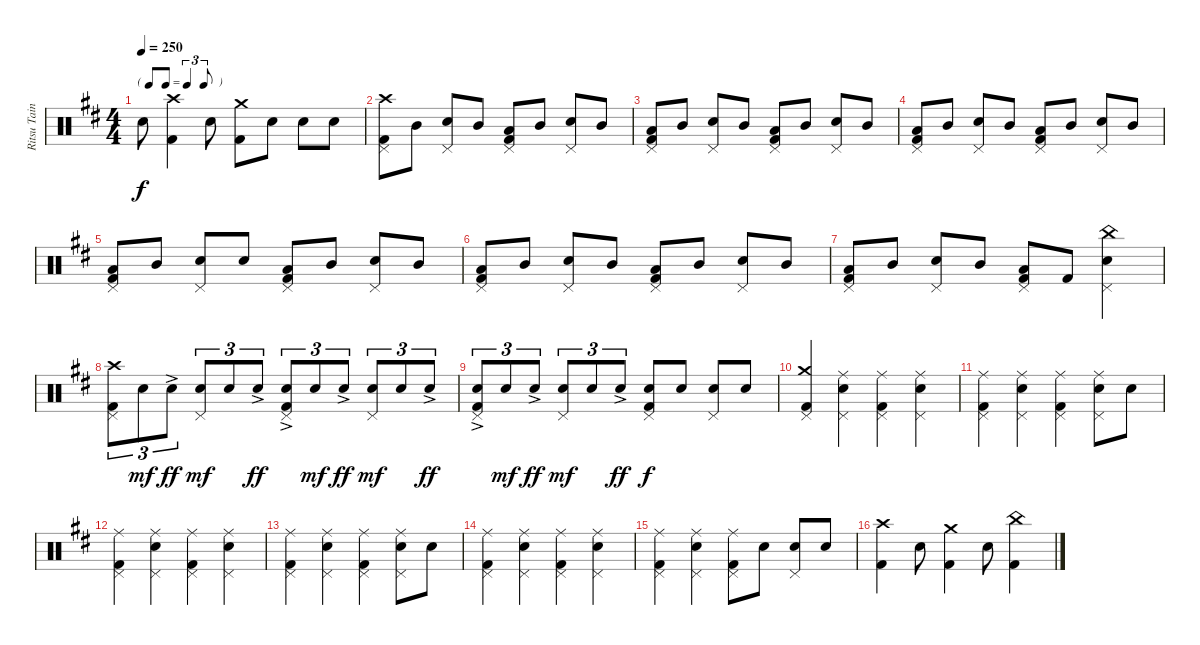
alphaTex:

\track ("Ritsu Tainaka" "Ritsu Tain") {instrument percussion}
\staff {score}
\articulation defaults
\ts (4 4)
\tf triplet8th
\tempo 250
\clef neutral
\ks d "Electric Snare (hit)".8{dy f}
("Crash high (hit)" "Kick (hit) 2").4 "Electric Snare (hit)".8 ("Crash medium (hit)" "Kick (hit) 2").8 "Electric Snare (hit)".8 "Electric Snare (hit)".8 "Electric Snare (hit)".8 |
("Crash high (hit)" "Pedal Hi-Hat (hit)" "Kick (hit) 2").8 "Mid Tom (hit)".8 ("Pedal Hi-Hat (hit)" "Electric Snare (hit)").8 "Mid Tom (hit)".8 ("Pedal Hi-Hat (hit)" "Low Floor Tom (hit)" "Kick (hit) 2").8 "Mid Tom (hit)".8 ("Pedal Hi-Hat (hit)" "Electric Snare (hit)").8 "Mid Tom (hit)".8 |
("Pedal Hi-Hat (hit)" "Low Floor Tom (hit)" "Kick (hit) 2").8 "Mid Tom (hit)".8 ("Pedal Hi-Hat (hit)" "Electric Snare (hit)").8 "Mid Tom (hit)".8 ("Pedal Hi-Hat (hit)" "Low Floor Tom (hit)" "Kick (hit) 2").8 "Mid Tom (hit)".8 ("Pedal Hi-Hat (hit)" "Electric Snare (hit)").8 "Mid Tom (hit)".8 |
("Pedal Hi-Hat (hit)" "Low Floor Tom (hit)" "Kick (hit) 2").8 "Mid Tom (hit)".8 ("Pedal Hi-Hat (hit)" "Electric Snare (hit)").8 "Mid Tom (hit)".8 ("Pedal Hi-Hat (hit)" "Low Floor Tom (hit)" "Kick (hit) 2").8 "Mid Tom (hit)".8 ("Pedal Hi-Hat (hit)" "Electric Snare (hit)").8 "Mid Tom (hit)".8 |
("Pedal Hi-Hat (hit)" "Low Floor Tom (hit)" "Kick (hit) 2").8 "Mid Tom (hit)".8 ("Pedal Hi-Hat (hit)" "Electric Snare (hit)").8 "Electric Snare (hit)".8 ("Pedal Hi-Hat (hit)" "Low Floor Tom (hit)" "Kick (hit) 2").8 "Mid Tom (hit)".8 ("Pedal Hi-Hat (hit)" "Electric Snare (hit)").8 "Mid Tom (hit)".8 |
("Pedal Hi-Hat (hit)" "Low Floor Tom (hit)" "Kick (hit) 2").8 "Mid Tom (hit)".8 ("Pedal Hi-Hat (hit)" "Electric Snare (hit)").8 "Mid Tom (hit)".8 ("Pedal Hi-Hat (hit)" "Low Floor Tom (hit)" "Kick (hit) 2").8 "Mid Tom (hit)".8 ("Pedal Hi-Hat (hit)" "Electric Snare (hit)").8 "Mid Tom (hit)".8 |
("Pedal Hi-Hat (hit)" "Low Floor Tom (hit)" "Kick (hit) 2").8 "Mid Tom (hit)".8 ("Pedal Hi-Hat (hit)" "Electric Snare (hit)").8 "Mid Tom (hit)".8 ("Pedal Hi-Hat (hit)" "Low Floor Tom (hit)" "Kick (hit) 2").8 "Kick (hit) 2".8 ("China (hit)" "Pedal Hi-Hat (hit)" "Electric Snare (hit)").4 |
("Crash high (hit)" "Pedal Hi-Hat (hit)" "Kick (hit) 2").8{tu (3 2)} "Electric Snare (hit)".8{tu (3 2) dy mf} "Electric Snare (hit)"{ac}.8{tu (3 2) dy ff} ("Pedal Hi-Hat (hit)" "Electric Snare (hit)").8{tu (3 2) dy mf} "Electric Snare (hit)".8{tu (3 2)} "Electric Snare (hit)"{ac}.8{tu (3 2) dy ff} ("Pedal Hi-Hat (hit)" "Electric Snare (hit)"{ac} "Kick (hit) 2").8{tu (3 2)} "Electric Snare (hit)".8{tu (3 2) dy mf} "Electric Snare (hit)"{ac}.8{tu (3 2) dy ff} ("Pedal Hi-Hat (hit)" "Electric Snare (hit)").8{tu (3 2) dy mf} "Electric Snare (hit)".8{tu (3 2)} "Electric Snare (hit)"{ac}.8{tu (3 2) dy ff} |
("Pedal Hi-Hat (hit)" "Electric Snare (hit)"{ac} "Kick (hit) 2").8{tu (3 2)} "Electric Snare (hit)".8{tu (3 2) dy mf} "Electric Snare (hit)"{ac}.8{tu (3 2) dy ff} ("Pedal Hi-Hat (hit)" "Electric Snare (hit)").8{tu (3 2) dy mf} "Electric Snare (hit)".8{tu (3 2)} "Electric Snare (hit)"{ac}.8{tu (3 2) dy ff} ("Pedal Hi-Hat (hit)" "Electric Snare (hit)" "Kick (hit) 2").8{dy f} "Electric Snare (hit)".8 ("Pedal Hi-Hat (hit)" "Electric Snare (hit)").8 "Electric Snare (hit)".8 |
("Crash medium (hit)" "Pedal Hi-Hat (hit)" "Kick (hit) 2").4 ("Ride (middle)" "Pedal Hi-Hat (hit)" "Electric Snare (hit)").4 ("Ride (middle)" "Pedal Hi-Hat (hit)" "Kick (hit) 2").4 ("Ride (middle)" "Pedal Hi-Hat (hit)" "Electric Snare (hit)").4 |
("Ride (middle)" "Pedal Hi-Hat (hit)" "Kick (hit) 2").4 ("Ride (middle)" "Pedal Hi-Hat (hit)" "Electric Snare (hit)").4 ("Ride (middle)" "Pedal Hi-Hat (hit)" "Kick (hit) 2").4 ("Ride (middle)" "Pedal Hi-Hat (hit)" "Electric Snare (hit)").8 "Electric Snare (hit)".8 |
("Ride (middle)" "Pedal Hi-Hat (hit)" "Kick (hit) 2").4 ("Ride (middle)" "Pedal Hi-Hat (hit)" "Electric Snare (hit)").4 ("Ride (middle)" "Pedal Hi-Hat (hit)" "Kick (hit) 2").4 ("Ride (middle)" "Pedal Hi-Hat (hit)" "Electric Snare (hit)").4 |
("Ride (middle)" "Pedal Hi-Hat (hit)" "Kick (hit) 2").4 ("Ride (middle)" "Pedal Hi-Hat (hit)" "Electric Snare (hit)").4 ("Ride (middle)" "Pedal Hi-Hat (hit)" "Kick (hit) 2").4 ("Ride (middle)" "Pedal Hi-Hat (hit)" "Electric Snare (hit)").8 "Electric Snare (hit)".8 |
("Ride (middle)" "Pedal Hi-Hat (hit)" "Kick (hit) 2").4 ("Ride (middle)" "Pedal Hi-Hat (hit)" "Electric Snare (hit)").4 ("Ride (middle)" "Pedal Hi-Hat (hit)" "Kick (hit) 2").4 ("Ride (middle)" "Pedal Hi-Hat (hit)" "Electric Snare (hit)").4 |
("Ride (middle)" "Pedal Hi-Hat (hit)" "Kick (hit) 2").4 ("Ride (middle)" "Pedal Hi-Hat (hit)" "Electric Snare (hit)").4 ("Ride (middle)" "Pedal Hi-Hat (hit)" "Kick (hit) 2").8 "Electric Snare (hit)".8 ("Pedal Hi-Hat (hit)" "Electric Snare (hit)").8 "Electric Snare (hit)".8 |
("Crash high (hit)" "Kick (hit) 2").4 "Electric Snare (hit)".8 ("Crash medium (hit)" "Kick (hit) 2").4 "Electric Snare (hit)".8 ("China (hit)" "Kick (hit) 2").4
